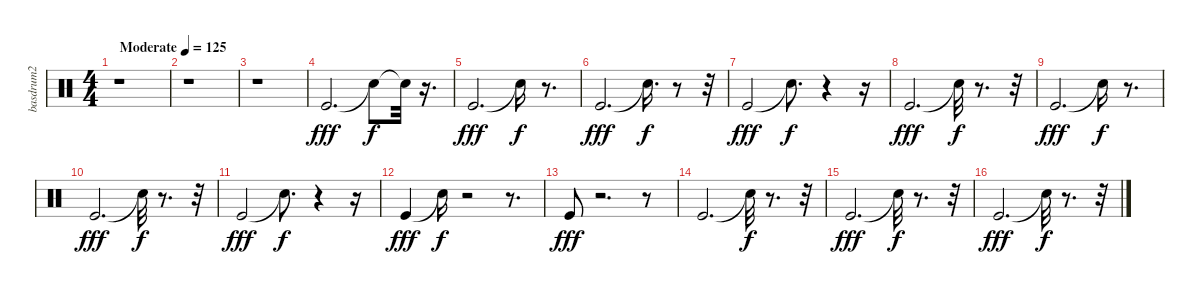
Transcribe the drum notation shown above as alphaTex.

\track ("basdrum2" "basdrum2") {instrument percussion}
\staff {score}
\articulation defaults
\ts (4 4)
\tempo (125 "Moderate")
\clef neutral
\ks c
r.1{dy fff} |
r.1 |
r.1 |
"Kick (hit)".2{d} "Snare (hit)"{t}.8{dy f} "Snare (hit)"{t}.32 r.16{d} |
"Kick (hit)".2{d dy fff} "Snare (hit)"{t}.16{dy f} r.8{d} |
"Kick (hit)".2{d dy fff} "Snare (hit)"{t}.16{d dy f} r.8 r.32 |
"Kick (hit)".2{dy fff} "Snare (hit)"{t}.8{d dy f} r.4 r.16 |
"Kick (hit)".2{d dy fff} "Snare (hit)"{t}.32{dy f} r.8{d} r.32 |
"Kick (hit)".2{d dy fff} "Snare (hit)"{t}.16{dy f} r.8{d} |
"Kick (hit)".2{d dy fff} "Snare (hit)"{t}.32{dy f} r.8{d} r.32 |
"Kick (hit)".2{dy fff} "Snare (hit)"{t}.8{d dy f} r.4 r.16 |
"Kick (hit)".4{dy fff} "Snare (hit)"{t}.16{dy f} r.2 r.8{d} |
"Kick (hit)".8{dy fff} r.2{d} r.8 |
"Kick (hit)".2{d} "Snare (hit)"{t}.32{dy f} r.8{d} r.32 |
"Kick (hit)".2{d dy fff} "Snare (hit)"{t}.32{dy f} r.8{d} r.32 |
"Kick (hit)".2{d dy fff} "Snare (hit)"{t}.32{dy f} r.8{d} r.32
